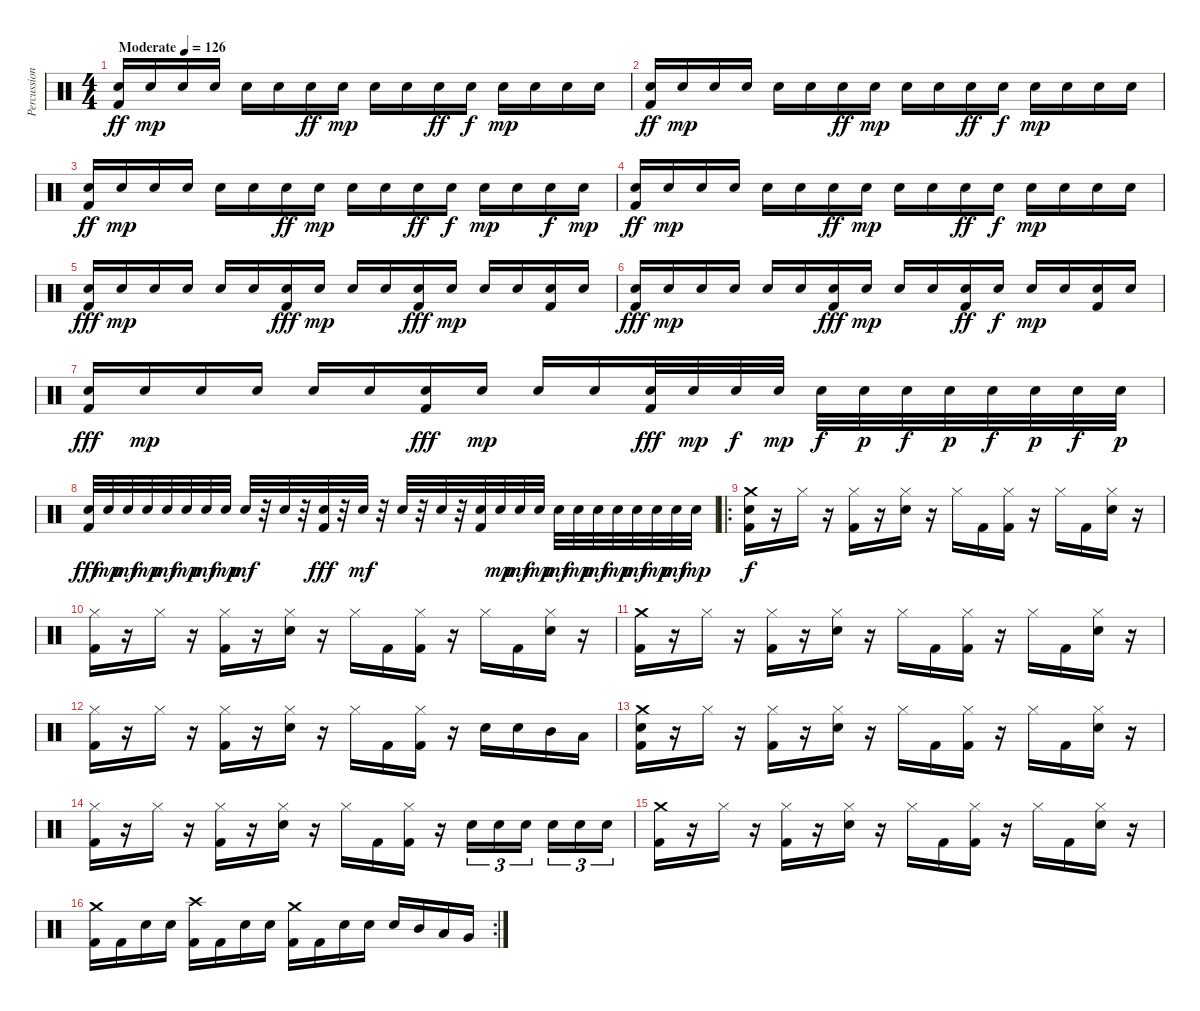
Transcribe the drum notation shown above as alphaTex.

\track ("Percussion" "Percussion") {instrument percussion}
\staff {score}
\articulation defaults
\ts (4 4)
\tempo (126 "Moderate")
\clef neutral
\ks c
("Kick (hit) 2" "Electric Snare (hit)").16{dy ff} "Electric Snare (hit)".16{dy mp} "Electric Snare (hit)".16 "Electric Snare (hit)".16 "Electric Snare (hit)".16 "Electric Snare (hit)".16 "Electric Snare (hit)".16{dy ff} "Electric Snare (hit)".16{dy mp} "Electric Snare (hit)".16 "Electric Snare (hit)".16 "Electric Snare (hit)".16{dy ff} "Electric Snare (hit)".16{dy f} "Electric Snare (hit)".16{dy mp} "Electric Snare (hit)".16 "Electric Snare (hit)".16 "Electric Snare (hit)".16 |
("Kick (hit) 2" "Electric Snare (hit)").16{dy ff} "Electric Snare (hit)".16{dy mp} "Electric Snare (hit)".16 "Electric Snare (hit)".16 "Electric Snare (hit)".16 "Electric Snare (hit)".16 "Electric Snare (hit)".16{dy ff} "Electric Snare (hit)".16{dy mp} "Electric Snare (hit)".16 "Electric Snare (hit)".16 "Electric Snare (hit)".16{dy ff} "Electric Snare (hit)".16{dy f} "Electric Snare (hit)".16{dy mp} "Electric Snare (hit)".16 "Electric Snare (hit)".16 "Electric Snare (hit)".16 |
("Kick (hit) 2" "Electric Snare (hit)").16{dy ff} "Electric Snare (hit)".16{dy mp} "Electric Snare (hit)".16 "Electric Snare (hit)".16 "Electric Snare (hit)".16 "Electric Snare (hit)".16 "Electric Snare (hit)".16{dy ff} "Electric Snare (hit)".16{dy mp} "Electric Snare (hit)".16 "Electric Snare (hit)".16 "Electric Snare (hit)".16{dy ff} "Electric Snare (hit)".16{dy f} "Electric Snare (hit)".16{dy mp} "Electric Snare (hit)".16 "Electric Snare (hit)".16{dy f} "Electric Snare (hit)".16{dy mp} |
("Kick (hit) 2" "Electric Snare (hit)").16{dy ff} "Electric Snare (hit)".16{dy mp} "Electric Snare (hit)".16 "Electric Snare (hit)".16 "Electric Snare (hit)".16 "Electric Snare (hit)".16 "Electric Snare (hit)".16{dy ff} "Electric Snare (hit)".16{dy mp} "Electric Snare (hit)".16 "Electric Snare (hit)".16 "Electric Snare (hit)".16{dy ff} "Electric Snare (hit)".16{dy f} "Electric Snare (hit)".16{dy mp} "Electric Snare (hit)".16 "Electric Snare (hit)".16 "Electric Snare (hit)".16 |
("Kick (hit) 2" "Electric Snare (hit)").16{dy fff} "Electric Snare (hit)".16{dy mp} "Electric Snare (hit)".16 "Electric Snare (hit)".16 "Electric Snare (hit)".16 "Electric Snare (hit)".16 ("Kick (hit) 2" "Electric Snare (hit)").16{dy fff} "Electric Snare (hit)".16{dy mp} "Electric Snare (hit)".16 "Electric Snare (hit)".16 ("Kick (hit) 2" "Electric Snare (hit)").16{dy fff} "Electric Snare (hit)".16{dy mp} "Electric Snare (hit)".16 "Electric Snare (hit)".16 ("Kick (hit) 2" "Electric Snare (hit)").16 "Electric Snare (hit)".16 |
("Kick (hit) 2" "Electric Snare (hit)").16{dy fff} "Electric Snare (hit)".16{dy mp} "Electric Snare (hit)".16 "Electric Snare (hit)".16 "Electric Snare (hit)".16 "Electric Snare (hit)".16 ("Kick (hit) 2" "Electric Snare (hit)").16{dy fff} "Electric Snare (hit)".16{dy mp} "Electric Snare (hit)".16 "Electric Snare (hit)".16 ("Kick (hit) 2" "Electric Snare (hit)").16{dy ff} "Electric Snare (hit)".16{dy f} "Electric Snare (hit)".16{dy mp} "Electric Snare (hit)".16 ("Kick (hit) 2" "Electric Snare (hit)").16 "Electric Snare (hit)".16 |
("Kick (hit) 2" "Electric Snare (hit)").16{dy fff} "Electric Snare (hit)".16{dy mp} "Electric Snare (hit)".16 "Electric Snare (hit)".16 "Electric Snare (hit)".16 "Electric Snare (hit)".16 ("Kick (hit) 2" "Electric Snare (hit)").16{dy fff} "Electric Snare (hit)".16{dy mp} "Electric Snare (hit)".16 "Electric Snare (hit)".16 ("Kick (hit) 2" "Electric Snare (hit)").32{dy fff} "Electric Snare (hit)".32{dy mp} "Electric Snare (hit)".32{dy f} "Electric Snare (hit)".32{dy mp} "Electric Snare (hit)".32{dy f} "Electric Snare (hit)".32{dy p} "Electric Snare (hit)".32{dy f} "Electric Snare (hit)".32{dy p} "Electric Snare (hit)".32{dy f} "Electric Snare (hit)".32{dy p} "Electric Snare (hit)".32{dy f} "Electric Snare (hit)".32{dy p} |
("Kick (hit) 2" "Electric Snare (hit)").32{dy fff} "Electric Snare (hit)".32{dy mp} "Electric Snare (hit)".32{dy mf} "Electric Snare (hit)".32{dy mp} "Electric Snare (hit)".32{dy mf} "Electric Snare (hit)".32{dy mp} "Electric Snare (hit)".32{dy mf} "Electric Snare (hit)".32{dy mp} "Electric Snare (hit)".32{dy mf} r.32 "Electric Snare (hit)".32 r.32 ("Kick (hit) 2" "Electric Snare (hit)").32{dy fff} r.32 "Electric Snare (hit)".32{dy mf} r.32 "Electric Snare (hit)".32 r.32 "Electric Snare (hit)".32 r.32 ("Kick (hit) 2" "Electric Snare (hit)").32 "Electric Snare (hit)".32{dy mp} "Electric Snare (hit)".32{dy mf} "Electric Snare (hit)".32{dy mp} "Electric Snare (hit)".32{dy mf} "Electric Snare (hit)".32{dy mp} "Electric Snare (hit)".32{dy mf} "Electric Snare (hit)".32{dy mp} "Electric Snare (hit)".32{dy mf} "Electric Snare (hit)".32{dy mp} "Electric Snare (hit)".32{dy mf} "Electric Snare (hit)".32{dy mp} |
\ro
("Kick (hit) 2" "Electric Snare (hit)" "Crash medium (hit)").16{dy f} r.16 "Hi-Hat (closed)".16 r.16 ("Kick (hit) 2" "Hi-Hat (closed)").16 r.16 ("Electric Snare (hit)" "Hi-Hat (closed)").16 r.16 "Hi-Hat (closed)".16 "Kick (hit) 2".16 ("Kick (hit) 2" "Hi-Hat (closed)").16 r.16 "Hi-Hat (closed)".16 "Kick (hit) 2".16 ("Electric Snare (hit)" "Hi-Hat (closed)").16 r.16 |
("Kick (hit) 2" "Hi-Hat (closed)").16 r.16 "Hi-Hat (closed)".16 r.16 ("Kick (hit) 2" "Hi-Hat (closed)").16 r.16 ("Electric Snare (hit)" "Hi-Hat (closed)").16 r.16 "Hi-Hat (closed)".16 "Kick (hit) 2".16 ("Kick (hit) 2" "Hi-Hat (closed)").16 r.16 "Hi-Hat (closed)".16 "Kick (hit) 2".16 ("Electric Snare (hit)" "Hi-Hat (closed)").16 r.16 |
("Kick (hit) 2" "Crash medium (hit)").16 r.16 "Hi-Hat (closed)".16 r.16 ("Kick (hit) 2" "Hi-Hat (closed)").16 r.16 ("Electric Snare (hit)" "Hi-Hat (closed)").16 r.16 "Hi-Hat (closed)".16 "Kick (hit) 2".16 ("Kick (hit) 2" "Hi-Hat (closed)").16 r.16 "Hi-Hat (closed)".16 "Kick (hit) 2".16 ("Electric Snare (hit)" "Hi-Hat (closed)").16 r.16 |
("Kick (hit) 2" "Hi-Hat (closed)").16 r.16 "Hi-Hat (closed)".16 r.16 ("Kick (hit) 2" "Hi-Hat (closed)").16 r.16 ("Electric Snare (hit)" "Hi-Hat (closed)").16 r.16 "Hi-Hat (closed)".16 "Kick (hit) 2".16 ("Kick (hit) 2" "Hi-Hat (closed)").16 r.16 "Electric Snare (hit)".16 "Electric Snare (hit)".16 "Mid Tom (hit)".16 "Low Tom (hit)".16 |
("Kick (hit) 2" "Electric Snare (hit)" "Crash medium (hit)").16 r.16 "Hi-Hat (closed)".16 r.16 ("Kick (hit) 2" "Hi-Hat (closed)").16 r.16 ("Electric Snare (hit)" "Hi-Hat (closed)").16 r.16 "Hi-Hat (closed)".16 "Kick (hit) 2".16 ("Kick (hit) 2" "Hi-Hat (closed)").16 r.16 "Hi-Hat (closed)".16 "Kick (hit) 2".16 ("Electric Snare (hit)" "Hi-Hat (closed)").16 r.16 |
("Kick (hit) 2" "Hi-Hat (closed)").16 r.16 "Hi-Hat (closed)".16 r.16 ("Kick (hit) 2" "Hi-Hat (closed)").16 r.16 ("Electric Snare (hit)" "Hi-Hat (closed)").16 r.16 "Hi-Hat (closed)".16 "Kick (hit) 2".16 ("Kick (hit) 2" "Hi-Hat (closed)").16 r.16 "Electric Snare (hit)".16{tu (3 2)} "Electric Snare (hit)".16{tu (3 2)} "Electric Snare (hit)".16{tu (3 2) beam splitsecondary} "Electric Snare (hit)".16{tu (3 2)} "Electric Snare (hit)".16{tu (3 2)} "Electric Snare (hit)".16{tu (3 2)} |
("Kick (hit) 2" "Crash medium (hit)").16 r.16 "Hi-Hat (closed)".16 r.16 ("Kick (hit) 2" "Hi-Hat (closed)").16 r.16 ("Electric Snare (hit)" "Hi-Hat (closed)").16 r.16 "Hi-Hat (closed)".16 "Kick (hit) 2".16 ("Kick (hit) 2" "Hi-Hat (closed)").16 r.16 "Hi-Hat (closed)".16 "Kick (hit) 2".16 ("Electric Snare (hit)" "Hi-Hat (closed)").16 r.16 |
\rc 2
("Kick (hit) 2" "Crash medium (hit)").16 "Kick (hit) 2".16 "Electric Snare (hit)".16 "Electric Snare (hit)".16 ("Kick (hit) 2" "Crash high (hit)").16 "Kick (hit) 2".16 "Electric Snare (hit)".16 "Electric Snare (hit)".16 ("Kick (hit) 2" "Crash medium (hit)").16 "Kick (hit) 2".16 "Electric Snare (hit)".16 "Electric Snare (hit)".16 "Electric Snare (hit)".16 "Mid Tom (hit)".16 "Low Tom (hit)".16 "Very Low Tom (hit)".16
